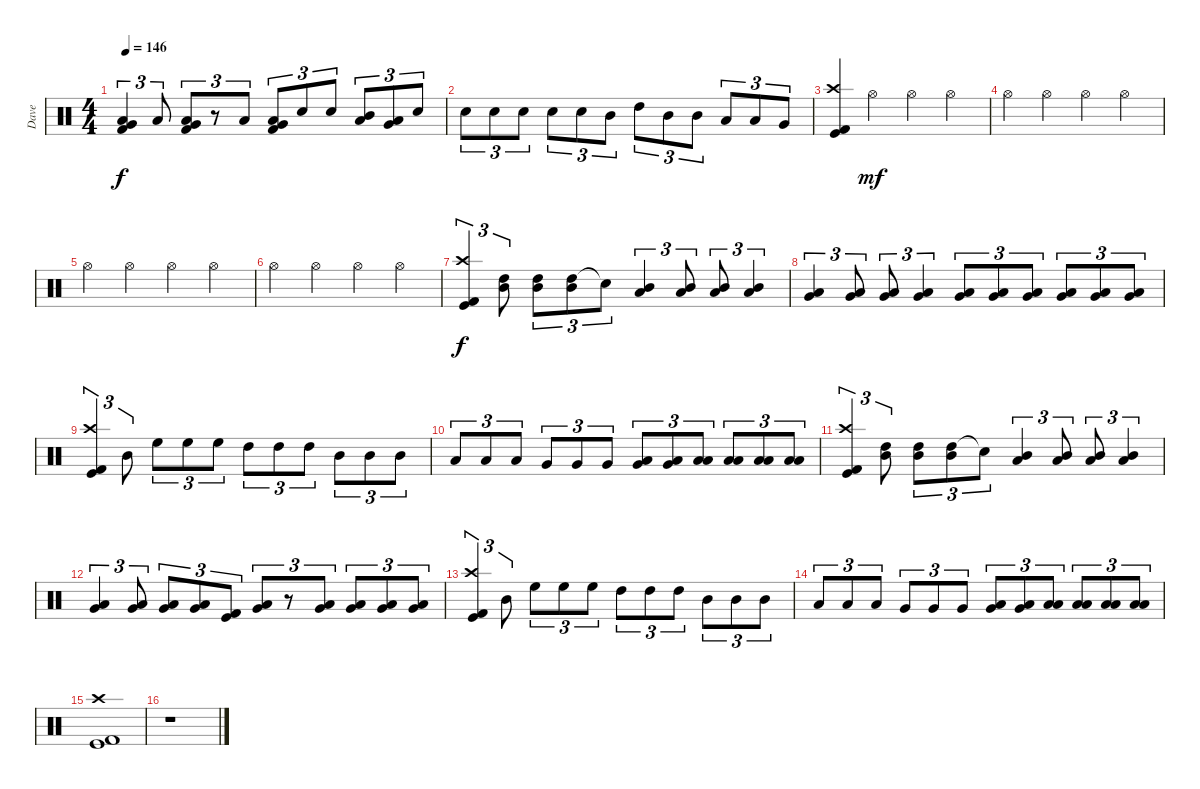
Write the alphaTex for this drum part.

\track ("Dave" "Dave") {instrument percussion}
\staff {score}
\articulation defaults
\ts (4 4)
\tempo 146
\clef neutral
\ks c
("Low Floor Tom (hit)" "Very Low Tom (hit)" "Kick (hit) 2").4{tu (3 2) bd 120 dy f} "Low Floor Tom (hit)".8{tu (3 2)} ("Low Floor Tom (hit)" "Very Low Tom (hit)" "Kick (hit) 2").8{tu (3 2) bd 120} r.8{tu (3 2)} "Low Floor Tom (hit)".8{tu (3 2)} ("Low Floor Tom (hit)" "Very Low Tom (hit)" "Kick (hit) 2").8{tu (3 2) bd 120} "Electric Snare (hit)".8{tu (3 2)} "Electric Snare (hit)".8{tu (3 2)} ("Low Tom (hit)" "Mid Tom (hit)").8{tu (3 2)} ("Very Low Tom (hit)" "Low Tom (hit)").8{tu (3 2)} "Electric Snare (hit)".8{tu (3 2)} |
"Electric Snare (hit)".8{tu (3 2)} "Electric Snare (hit)".8{tu (3 2)} "Electric Snare (hit)".8{tu (3 2)} "Electric Snare (hit)".8{tu (3 2)} "Electric Snare (hit)".8{tu (3 2)} "Mid Tom (hit)".8{tu (3 2)} "High Tom (hit)".8{tu (3 2)} "Mid Tom (hit)".8{tu (3 2)} "Mid Tom (hit)".8{tu (3 2)} "Low Tom (hit)".8{tu (3 2)} "Low Tom (hit)".8{tu (3 2)} "Very Low Tom (hit)".8{tu (3 2)} |
("Crash high (hit)" "Kick (hit)" "Kick (hit) 2").4 "Hi-Hat (open)".4{dy mf} "Hi-Hat (open)".4 "Hi-Hat (open)".4 |
"Hi-Hat (open)".4 "Hi-Hat (open)".4 "Hi-Hat (open)".4 "Hi-Hat (open)".4 |
"Hi-Hat (open)".4 "Hi-Hat (open)".4 "Hi-Hat (open)".4 "Hi-Hat (open)".4 |
"Hi-Hat (open)".4 "Hi-Hat (open)".4 "Hi-Hat (open)".4 "Hi-Hat (open)".4 |
("Crash high (hit)" "Kick (hit)" "Kick (hit) 2").4{tu (3 2) dy f} ("High Tom (hit)" "Mid Tom (hit)").8{tu (3 2)} ("High Tom (hit)" "Mid Tom (hit)").8{tu (3 2)} ("High Tom (hit)" "Mid Tom (hit)").8{tu (3 2)} "Snare (hit)"{t}.8{tu (3 2)} ("Mid Tom (hit)" "Low Tom (hit)").4{tu (3 2)} ("Mid Tom (hit)" "Low Tom (hit)").8{tu (3 2)} ("Mid Tom (hit)" "Low Tom (hit)").8{tu (3 2)} ("Mid Tom (hit)" "Low Tom (hit)").4{tu (3 2)} |
("Low Tom (hit)" "Very Low Tom (hit)").4{tu (3 2)} ("Low Tom (hit)" "Very Low Tom (hit)").8{tu (3 2)} ("Low Tom (hit)" "Very Low Tom (hit)").8{tu (3 2)} ("Low Tom (hit)" "Very Low Tom (hit)").4{tu (3 2)} ("Very Low Tom (hit)" "Low Floor Tom (hit)").8{tu (3 2)} ("Low Tom (hit)" "Very Low Tom (hit)").8{tu (3 2)} ("Low Tom (hit)" "Very Low Tom (hit)").8{tu (3 2)} ("Very Low Tom (hit)" "Low Floor Tom (hit)").8{tu (3 2)} ("Low Tom (hit)" "Very Low Tom (hit)").8{tu (3 2)} ("Low Tom (hit)" "Very Low Tom (hit)").8{tu (3 2)} |
("Crash high (hit)" "Kick (hit)" "Kick (hit) 2").4{tu (3 2)} "Mid Tom (hit)".8{tu (3 2)} "High Floor Tom (hit)".8{tu (3 2)} "High Floor Tom (hit)".8{tu (3 2)} "High Floor Tom (hit)".8{tu (3 2)} "High Tom (hit)".8{tu (3 2)} "High Tom (hit)".8{tu (3 2)} "High Tom (hit)".8{tu (3 2)} "Mid Tom (hit)".8{tu (3 2)} "Mid Tom (hit)".8{tu (3 2)} "Mid Tom (hit)".8{tu (3 2)} |
"Low Tom (hit)".8{tu (3 2)} "Low Tom (hit)".8{tu (3 2)} "Low Tom (hit)".8{tu (3 2)} "Very Low Tom (hit)".8{tu (3 2)} "Very Low Tom (hit)".8{tu (3 2)} "Very Low Tom (hit)".8{tu (3 2)} ("Very Low Tom (hit)" "Low Floor Tom (hit)").8{tu (3 2)} ("Very Low Tom (hit)" "Low Floor Tom (hit)").8{tu (3 2)} ("Low Floor Tom (hit)" "Low Floor Tom (hit)").8{tu (3 2)} ("Low Floor Tom (hit)" "Low Floor Tom (hit)").8{tu (3 2)} ("Low Floor Tom (hit)" "Low Floor Tom (hit)").8{tu (3 2)} ("Low Floor Tom (hit)" "Low Floor Tom (hit)").8{tu (3 2)} |
("Crash high (hit)" "Kick (hit)" "Kick (hit) 2").4{tu (3 2)} ("High Tom (hit)" "Mid Tom (hit)").8{tu (3 2)} ("High Tom (hit)" "Mid Tom (hit)").8{tu (3 2)} ("High Tom (hit)" "Mid Tom (hit)").8{tu (3 2)} "Snare (hit)"{t}.8{tu (3 2)} ("Mid Tom (hit)" "Low Tom (hit)").4{tu (3 2)} ("Mid Tom (hit)" "Low Tom (hit)").8{tu (3 2)} ("Mid Tom (hit)" "Low Tom (hit)").8{tu (3 2)} ("Mid Tom (hit)" "Low Tom (hit)").4{tu (3 2)} |
("Low Tom (hit)" "Very Low Tom (hit)").4{tu (3 2)} ("Low Tom (hit)" "Very Low Tom (hit)").8{tu (3 2)} ("Low Tom (hit)" "Very Low Tom (hit)").8{tu (3 2)} ("Low Tom (hit)" "Very Low Tom (hit)").8{tu (3 2)} ("Kick (hit)" "Kick (hit) 2").8{tu (3 2)} ("Very Low Tom (hit)" "Low Floor Tom (hit)").8{tu (3 2)} r.8{tu (3 2)} ("Low Tom (hit)" "Very Low Tom (hit)").8{tu (3 2)} ("Very Low Tom (hit)" "Low Floor Tom (hit)").8{tu (3 2)} ("Low Tom (hit)" "Very Low Tom (hit)").8{tu (3 2)} ("Low Tom (hit)" "Very Low Tom (hit)").8{tu (3 2)} |
("Crash high (hit)" "Kick (hit)" "Kick (hit) 2").4{tu (3 2)} "Mid Tom (hit)".8{tu (3 2)} "High Floor Tom (hit)".8{tu (3 2)} "High Floor Tom (hit)".8{tu (3 2)} "High Floor Tom (hit)".8{tu (3 2)} "High Tom (hit)".8{tu (3 2)} "High Tom (hit)".8{tu (3 2)} "High Tom (hit)".8{tu (3 2)} "Mid Tom (hit)".8{tu (3 2)} "Mid Tom (hit)".8{tu (3 2)} "Mid Tom (hit)".8{tu (3 2)} |
"Low Tom (hit)".8{tu (3 2)} "Low Tom (hit)".8{tu (3 2)} "Low Tom (hit)".8{tu (3 2)} "Very Low Tom (hit)".8{tu (3 2)} "Very Low Tom (hit)".8{tu (3 2)} "Very Low Tom (hit)".8{tu (3 2)} ("Very Low Tom (hit)" "Low Floor Tom (hit)").8{tu (3 2)} ("Very Low Tom (hit)" "Low Floor Tom (hit)").8{tu (3 2)} ("Low Floor Tom (hit)" "Low Floor Tom (hit)").8{tu (3 2)} ("Low Floor Tom (hit)" "Low Floor Tom (hit)").8{tu (3 2)} ("Low Floor Tom (hit)" "Low Floor Tom (hit)").8{tu (3 2)} ("Low Floor Tom (hit)" "Low Floor Tom (hit)").8{tu (3 2)} |
("Crash high (hit)" "Kick (hit)" "Kick (hit) 2").1 |
r.1
